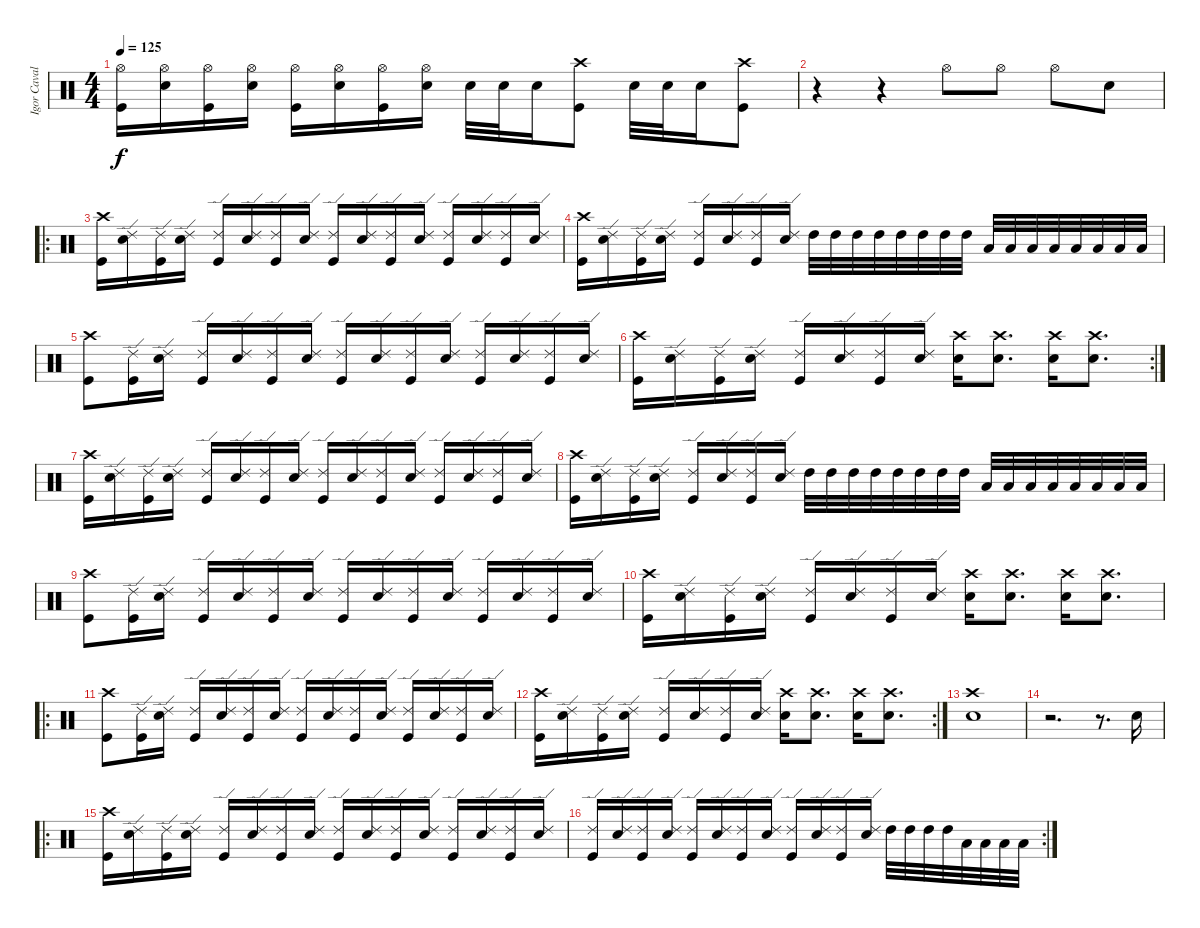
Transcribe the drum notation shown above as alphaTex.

\track ("Igor Cavalera" "Igor Caval") {instrument percussion}
\staff {score}
\articulation defaults
\ts (4 4)
\tempo 125
\clef neutral
\ks c
("Hi-Hat (open)" "Kick (hit)").16{dy f} ("Hi-Hat (open)" "Snare (hit) 2").16 ("Hi-Hat (open)" "Kick (hit)").16 ("Hi-Hat (open)" "Snare (hit) 2").16 ("Hi-Hat (open)" "Kick (hit)").16 ("Hi-Hat (open)" "Snare (hit) 2").16 ("Hi-Hat (open)" "Kick (hit)").16 ("Hi-Hat (open)" "Snare (hit) 2").16 "Snare (hit) 2".32 "Snare (hit) 2".32 "Snare (hit) 2".16 ("Crash high (hit)" "Kick (hit)").8 "Snare (hit) 2".32 "Snare (hit) 2".32 "Snare (hit) 2".16 ("Crash high (hit)" "Kick (hit)").8 |
r.4 r.4 "Hi-Hat (open)".8 "Hi-Hat (open)".8 "Hi-Hat (open)".8 "Snare (hit) 2".8 |
\ro
("Crash high (hit)" "Kick (hit)").16 ("Ride (edge) 2" "Snare (hit) 2").16 ("Ride (edge) 2" "Kick (hit)").16 ("Ride (edge) 2" "Snare (hit) 2").16 ("Ride (edge) 2" "Kick (hit)").16 ("Ride (edge) 2" "Snare (hit) 2").16 ("Ride (edge) 2" "Kick (hit)").16 ("Ride (edge) 2" "Snare (hit) 2").16 ("Ride (edge) 2" "Kick (hit)").16 ("Ride (edge) 2" "Snare (hit) 2").16 ("Ride (edge) 2" "Kick (hit)").16 ("Ride (edge) 2" "Snare (hit) 2").16 ("Ride (edge) 2" "Kick (hit)").16 ("Ride (edge) 2" "Snare (hit) 2").16 ("Ride (edge) 2" "Kick (hit)").16 ("Ride (edge) 2" "Snare (hit) 2").16 |
("Crash high (hit)" "Kick (hit)").16 ("Ride (edge) 2" "Snare (hit) 2").16 ("Ride (edge) 2" "Kick (hit)").16 ("Ride (edge) 2" "Snare (hit) 2").16 ("Ride (edge) 2" "Kick (hit)").16 ("Ride (edge) 2" "Snare (hit) 2").16 ("Ride (edge) 2" "Kick (hit)").16 ("Ride (edge) 2" "Snare (hit) 2").16 "High Tom (hit)".32 "High Tom (hit)".32 "High Tom (hit)".32 "High Tom (hit)".32 "High Tom (hit)".32 "High Tom (hit)".32 "High Tom (hit)".32 "High Tom (hit)".32 "Low Tom (hit)".32 "Low Tom (hit)".32 "Low Tom (hit)".32 "Low Tom (hit)".32 "Low Tom (hit)".32 "Low Tom (hit)".32 "Low Tom (hit)".32 "Low Tom (hit)".32 |
("Crash high (hit)" "Kick (hit)").8 ("Ride (edge) 2" "Kick (hit)").16 ("Ride (edge) 2" "Snare (hit) 2").16 ("Ride (edge) 2" "Kick (hit)").16 ("Ride (edge) 2" "Snare (hit) 2").16 ("Ride (edge) 2" "Kick (hit)").16 ("Ride (edge) 2" "Snare (hit) 2").16 ("Ride (edge) 2" "Kick (hit)").16 ("Ride (edge) 2" "Snare (hit) 2").16 ("Ride (edge) 2" "Kick (hit)").16 ("Ride (edge) 2" "Snare (hit) 2").16 ("Ride (edge) 2" "Kick (hit)").16 ("Ride (edge) 2" "Snare (hit) 2").16 ("Ride (edge) 2" "Kick (hit)").16 ("Ride (edge) 2" "Snare (hit) 2").16 |
\rc 2
("Crash high (hit)" "Kick (hit)").16 ("Ride (edge) 2" "Snare (hit) 2").16 ("Ride (edge) 2" "Kick (hit)").16 ("Ride (edge) 2" "Snare (hit) 2").16 ("Ride (edge) 2" "Kick (hit)").16 ("Ride (edge) 2" "Snare (hit) 2").16 ("Ride (edge) 2" "Kick (hit)").16 ("Ride (edge) 2" "Snare (hit) 2").16 ("Crash high (hit)" "Snare (hit) 2").16 ("Crash high (hit)" "Snare (hit) 2").8{d} ("Crash high (hit)" "Snare (hit) 2").16 ("Crash high (hit)" "Snare (hit) 2").8{d} |
("Crash high (hit)" "Kick (hit)").16 ("Ride (edge) 2" "Snare (hit) 2").16 ("Ride (edge) 2" "Kick (hit)").16 ("Ride (edge) 2" "Snare (hit) 2").16 ("Ride (edge) 2" "Kick (hit)").16 ("Ride (edge) 2" "Snare (hit) 2").16 ("Ride (edge) 2" "Kick (hit)").16 ("Ride (edge) 2" "Snare (hit) 2").16 ("Ride (edge) 2" "Kick (hit)").16 ("Ride (edge) 2" "Snare (hit) 2").16 ("Ride (edge) 2" "Kick (hit)").16 ("Ride (edge) 2" "Snare (hit) 2").16 ("Ride (edge) 2" "Kick (hit)").16 ("Ride (edge) 2" "Snare (hit) 2").16 ("Ride (edge) 2" "Kick (hit)").16 ("Ride (edge) 2" "Snare (hit) 2").16 |
("Crash high (hit)" "Kick (hit)").16 ("Ride (edge) 2" "Snare (hit) 2").16 ("Ride (edge) 2" "Kick (hit)").16 ("Ride (edge) 2" "Snare (hit) 2").16 ("Ride (edge) 2" "Kick (hit)").16 ("Ride (edge) 2" "Snare (hit) 2").16 ("Ride (edge) 2" "Kick (hit)").16 ("Ride (edge) 2" "Snare (hit) 2").16 "High Tom (hit)".32 "High Tom (hit)".32 "High Tom (hit)".32 "High Tom (hit)".32 "High Tom (hit)".32 "High Tom (hit)".32 "High Tom (hit)".32 "High Tom (hit)".32 "Low Tom (hit)".32 "Low Tom (hit)".32 "Low Tom (hit)".32 "Low Tom (hit)".32 "Low Tom (hit)".32 "Low Tom (hit)".32 "Low Tom (hit)".32 "Low Tom (hit)".32 |
("Crash high (hit)" "Kick (hit)").8 ("Ride (edge) 2" "Kick (hit)").16 ("Ride (edge) 2" "Snare (hit) 2").16 ("Ride (edge) 2" "Kick (hit)").16 ("Ride (edge) 2" "Snare (hit) 2").16 ("Ride (edge) 2" "Kick (hit)").16 ("Ride (edge) 2" "Snare (hit) 2").16 ("Ride (edge) 2" "Kick (hit)").16 ("Ride (edge) 2" "Snare (hit) 2").16 ("Ride (edge) 2" "Kick (hit)").16 ("Ride (edge) 2" "Snare (hit) 2").16 ("Ride (edge) 2" "Kick (hit)").16 ("Ride (edge) 2" "Snare (hit) 2").16 ("Ride (edge) 2" "Kick (hit)").16 ("Ride (edge) 2" "Snare (hit) 2").16 |
("Crash high (hit)" "Kick (hit)").16 ("Ride (edge) 2" "Snare (hit) 2").16 ("Ride (edge) 2" "Kick (hit)").16 ("Ride (edge) 2" "Snare (hit) 2").16 ("Ride (edge) 2" "Kick (hit)").16 ("Ride (edge) 2" "Snare (hit) 2").16 ("Ride (edge) 2" "Kick (hit)").16 ("Ride (edge) 2" "Snare (hit) 2").16 ("Crash high (hit)" "Snare (hit) 2").16 ("Crash high (hit)" "Snare (hit) 2").8{d} ("Crash high (hit)" "Snare (hit) 2").16 ("Crash high (hit)" "Snare (hit) 2").8{d} |
\ro
("Crash high (hit)" "Kick (hit)").8 ("Ride (edge) 2" "Kick (hit)").16 ("Ride (edge) 2" "Snare (hit) 2").16 ("Ride (edge) 2" "Kick (hit)").16 ("Ride (edge) 2" "Snare (hit) 2").16 ("Ride (edge) 2" "Kick (hit)").16 ("Ride (edge) 2" "Snare (hit) 2").16 ("Ride (edge) 2" "Kick (hit)").16 ("Ride (edge) 2" "Snare (hit) 2").16 ("Ride (edge) 2" "Kick (hit)").16 ("Ride (edge) 2" "Snare (hit) 2").16 ("Ride (edge) 2" "Kick (hit)").16 ("Ride (edge) 2" "Snare (hit) 2").16 ("Ride (edge) 2" "Kick (hit)").16 ("Ride (edge) 2" "Snare (hit) 2").16 |
\rc 2
("Crash high (hit)" "Kick (hit)").16 ("Ride (edge) 2" "Snare (hit) 2").16 ("Ride (edge) 2" "Kick (hit)").16 ("Ride (edge) 2" "Snare (hit) 2").16 ("Ride (edge) 2" "Kick (hit)").16 ("Ride (edge) 2" "Snare (hit) 2").16 ("Ride (edge) 2" "Kick (hit)").16 ("Ride (edge) 2" "Snare (hit) 2").16 ("Crash high (hit)" "Snare (hit) 2").16 ("Crash high (hit)" "Snare (hit) 2").8{d} ("Crash high (hit)" "Snare (hit) 2").16 ("Crash high (hit)" "Snare (hit) 2").8{d} |
("Crash high (hit)" "Snare (hit) 2").1 |
r.2{d} r.8{d} "Snare (hit) 2".16 |
\ro
("Crash high (hit)" "Kick (hit)").16 ("Ride (edge) 2" "Snare (hit) 2").16 ("Ride (edge) 2" "Kick (hit)").16 ("Ride (edge) 2" "Snare (hit) 2").16 ("Ride (edge) 2" "Kick (hit)").16 ("Ride (edge) 2" "Snare (hit) 2").16 ("Ride (edge) 2" "Kick (hit)").16 ("Ride (edge) 2" "Snare (hit) 2").16 ("Ride (edge) 2" "Kick (hit)").16 ("Ride (edge) 2" "Snare (hit) 2").16 ("Ride (edge) 2" "Kick (hit)").16 ("Ride (edge) 2" "Snare (hit) 2").16 ("Ride (edge) 2" "Kick (hit)").16 ("Ride (edge) 2" "Snare (hit) 2").16 ("Ride (edge) 2" "Kick (hit)").16 ("Ride (edge) 2" "Snare (hit) 2").16 |
\rc 2
("Ride (edge) 2" "Kick (hit)").16 ("Ride (edge) 2" "Snare (hit) 2").16 ("Ride (edge) 2" "Kick (hit)").16 ("Ride (edge) 2" "Snare (hit) 2").16 ("Ride (edge) 2" "Kick (hit)").16 ("Ride (edge) 2" "Snare (hit) 2").16 ("Ride (edge) 2" "Kick (hit)").16 ("Ride (edge) 2" "Snare (hit) 2").16 ("Ride (edge) 2" "Kick (hit)").16 ("Ride (edge) 2" "Snare (hit) 2").16 ("Ride (edge) 2" "Kick (hit)").16 ("Ride (edge) 2" "Snare (hit) 2").16 "High Tom (hit)".32 "High Tom (hit)".32 "High Tom (hit)".32 "High Tom (hit)".32 "Low Tom (hit)".32 "Low Tom (hit)".32 "Low Tom (hit)".32 "Low Tom (hit)".32
